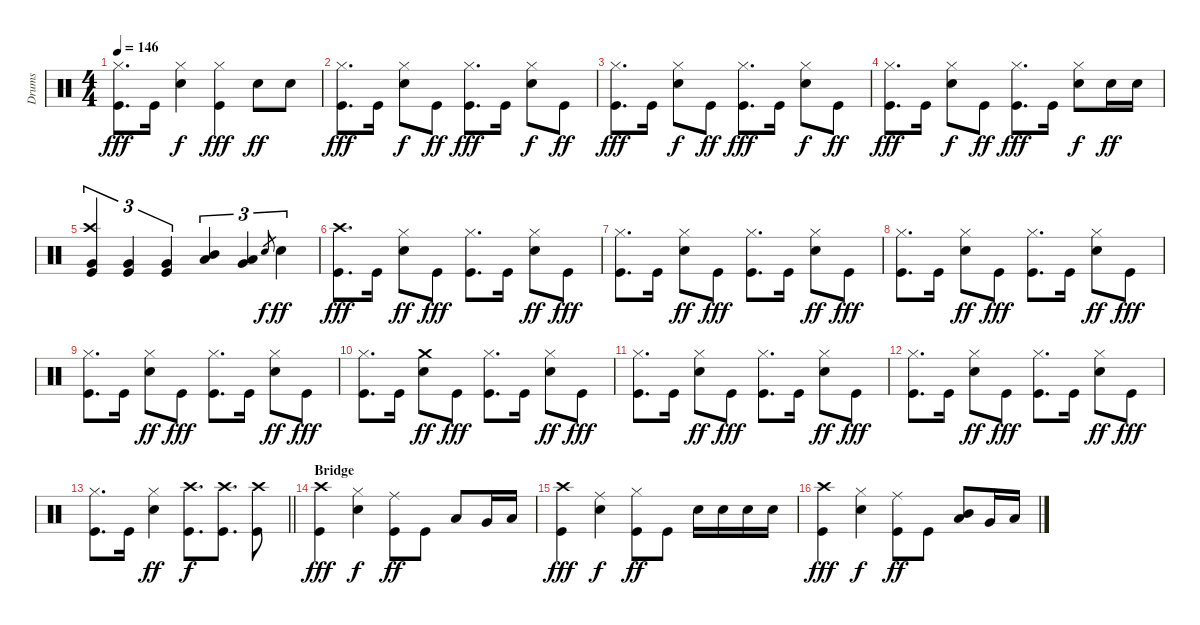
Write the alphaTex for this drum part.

\track ("Drums" "Drums") {instrument percussion}
\staff {score}
\articulation defaults
\ts (4 4)
\tempo 146
\clef neutral
\ks c
("Kick (hit)" "Hi-Hat (closed)").8{d dy fff} "Kick (hit)".16 ("Snare (hit) 2" "Hi-Hat (closed)").4{dy f} ("Kick (hit)" "Hi-Hat (closed)").4{dy fff} "Snare (hit) 2".8{dy ff} "Snare (hit) 2".8 |
("Kick (hit)" "Hi-Hat (closed)").8{d dy fff} "Kick (hit)".16 ("Snare (hit) 2" "Hi-Hat (closed)").8{dy f} "Kick (hit)".8{dy ff} ("Kick (hit)" "Hi-Hat (closed)").8{d dy fff} "Kick (hit)".16 ("Snare (hit) 2" "Hi-Hat (closed)").8{dy f} "Kick (hit)".8{dy ff} |
("Kick (hit)" "Hi-Hat (closed)").8{d dy fff} "Kick (hit)".16 ("Snare (hit) 2" "Hi-Hat (closed)").8{dy f} "Kick (hit)".8{dy ff} ("Kick (hit)" "Hi-Hat (closed)").8{d dy fff} "Kick (hit)".16 ("Snare (hit) 2" "Hi-Hat (closed)").8{dy f} "Kick (hit)".8{dy ff} |
("Kick (hit)" "Hi-Hat (closed)").8{d dy fff} "Kick (hit)".16 ("Snare (hit) 2" "Hi-Hat (closed)").8{dy f} "Kick (hit)".8{dy ff} ("Kick (hit)" "Hi-Hat (closed)").8{d dy fff} "Kick (hit)".16 ("Snare (hit) 2" "Hi-Hat (closed)").8{dy f} "Snare (hit) 2".16{dy ff} "Snare (hit) 2".16 |
("Kick (hit)" "Crash high (hit)" "Very Low Tom (hit)").4{tu (3 2)} ("Kick (hit)" "Very Low Tom (hit)").4{tu (3 2)} ("Kick (hit)" "Very Low Tom (hit)").4{tu (3 2)} ("Mid Tom (hit)" "Low Tom (hit)").4{tu (3 2)} ("Very Low Tom (hit)" "Low Tom (hit)").4{tu (3 2)} "Snare (hit) 2".8{gr dy f} "Snare (hit) 2".4{tu (3 2) dy ff} |
("Kick (hit)" "Crash high (hit)").8{d dy fff} "Kick (hit)".16 ("Snare (hit) 2" "Hi-Hat (closed)").8{dy ff} "Kick (hit)".8{dy fff} ("Kick (hit)" "Hi-Hat (closed)").8{d} "Kick (hit)".16 ("Snare (hit) 2" "Hi-Hat (closed)").8{dy ff} "Kick (hit)".8{dy fff} |
("Kick (hit)" "Hi-Hat (closed)").8{d} "Kick (hit)".16 ("Snare (hit) 2" "Hi-Hat (closed)").8{dy ff} "Kick (hit)".8{dy fff} ("Kick (hit)" "Hi-Hat (closed)").8{d} "Kick (hit)".16 ("Snare (hit) 2" "Hi-Hat (closed)").8{dy ff} "Kick (hit)".8{dy fff} |
("Kick (hit)" "Hi-Hat (closed)").8{d} "Kick (hit)".16 ("Snare (hit) 2" "Hi-Hat (closed)").8{dy ff} "Kick (hit)".8{dy fff} ("Kick (hit)" "Hi-Hat (closed)").8{d} "Kick (hit)".16 ("Snare (hit) 2" "Hi-Hat (closed)").8{dy ff} "Kick (hit)".8{dy fff} |
("Kick (hit)" "Hi-Hat (closed)").8{d} "Kick (hit)".16 ("Snare (hit) 2" "Hi-Hat (closed)").8{dy ff} "Kick (hit)".8{dy fff} ("Kick (hit)" "Hi-Hat (closed)").8{d} "Kick (hit)".16 ("Snare (hit) 2" "Hi-Hat (closed)").8{dy ff} "Kick (hit)".8{dy fff} |
("Kick (hit)" "Hi-Hat (closed)").8{d} "Kick (hit)".16 ("Snare (hit) 2" "Crash medium (hit)").8{dy ff} "Kick (hit)".8{dy fff} ("Kick (hit)" "Hi-Hat (closed)").8{d} "Kick (hit)".16 ("Snare (hit) 2" "Hi-Hat (closed)").8{dy ff} "Kick (hit)".8{dy fff} |
("Kick (hit)" "Hi-Hat (closed)").8{d} "Kick (hit)".16 ("Snare (hit) 2" "Hi-Hat (closed)").8{dy ff} "Kick (hit)".8{dy fff} ("Kick (hit)" "Hi-Hat (closed)").8{d} "Kick (hit)".16 ("Snare (hit) 2" "Hi-Hat (closed)").8{dy ff} "Kick (hit)".8{dy fff} |
("Kick (hit)" "Hi-Hat (closed)").8{d} "Kick (hit)".16 ("Snare (hit) 2" "Hi-Hat (closed)").8{dy ff} "Kick (hit)".8{dy fff} ("Kick (hit)" "Hi-Hat (closed)").8{d} "Kick (hit)".16 ("Snare (hit) 2" "Hi-Hat (closed)").8{dy ff} "Kick (hit)".8{dy fff} |
\barLineRight lightlight
("Kick (hit)" "Hi-Hat (closed)").8{d} "Kick (hit)".16 ("Snare (hit) 2" "Hi-Hat (closed)").4{dy ff} ("Kick (hit)" "Crash high (hit)").8{d dy f} ("Kick (hit)" "Crash high (hit)").8{d} ("Kick (hit)" "Crash high (hit)").8 |
\section ("" "Bridge")
("Kick (hit)" "Crash high (hit)").4{dy fff} ("Snare (hit) 2" "Hi-Hat (closed)").4{dy f} ("Ride (middle)" "Kick (hit)").8{dy ff} "Kick (hit)".8 "Low Tom (hit)".8 "Very Low Tom (hit)".16 "Low Floor Tom (hit)".16 |
("Kick (hit)" "Crash high (hit)").4{dy fff} ("Snare (hit) 2" "Ride (middle)").4{dy f} ("Hi-Hat (closed)" "Kick (hit)").8{dy ff} "Kick (hit)".8 "Snare (hit) 2".16 "Snare (hit) 2".16 "Snare (hit) 2".16 "Snare (hit) 2".16 |
("Kick (hit)" "Crash high (hit)").4{dy fff} ("Snare (hit) 2" "Hi-Hat (closed)").4{dy f} ("Ride (middle)" "Kick (hit)").8{dy ff} "Kick (hit)".8 ("Mid Tom (hit)" "Low Tom (hit)").8 "Very Low Tom (hit)".16 "Low Floor Tom (hit)".16
